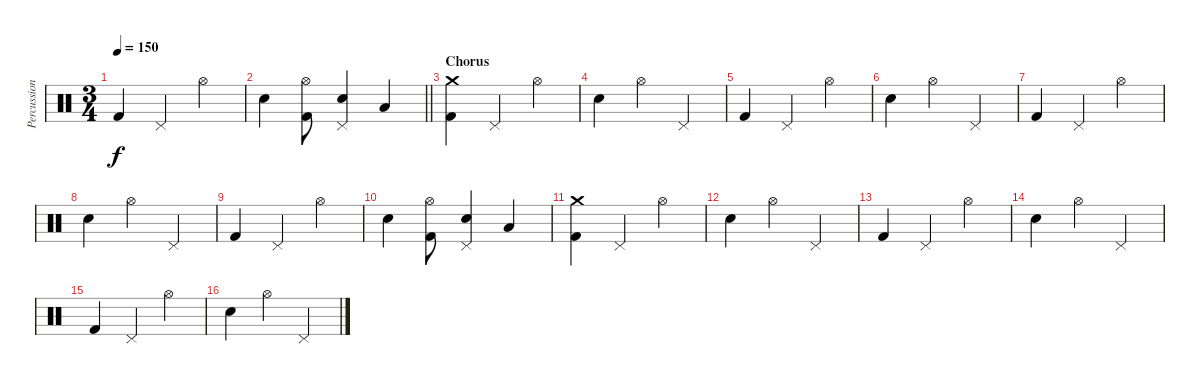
\track ("Percussion" "Percussion") {instrument percussion}
\staff {score}
\articulation defaults
\ts (3 4)
\tempo 150
\clef neutral
\ks c "Kick (hit) 2".4{dy f} "Pedal Hi-Hat (hit)".4 "Hi-Hat (open)".4
|
\barLineRight lightlight "Snare (hit) 2".4
("Kick (hit) 2" "Hi-Hat (open)").8 ("Snare (hit) 2" "Pedal Hi-Hat (hit)").4 "Low Tom (hit)".4 |
\section ("" "Chorus")
("Kick (hit) 2" "Crash medium (hit)").4 "Pedal Hi-Hat (hit)".4 "Hi-Hat (open)".4 |
"Snare (hit) 2".4 "Hi-Hat (open)".4 "Pedal Hi-Hat (hit)".4 |
"Kick (hit) 2".4 "Pedal Hi-Hat (hit)".4 "Hi-Hat (open)".4 |
"Snare (hit) 2".4 "Hi-Hat (open)".4 "Pedal Hi-Hat (hit)".4 |
"Kick (hit) 2".4 "Pedal Hi-Hat (hit)".4 "Hi-Hat (open)".4 |
"Snare (hit) 2".4 "Hi-Hat (open)".4 "Pedal Hi-Hat (hit)".4 |
"Kick (hit) 2".4 "Pedal Hi-Hat (hit)".4 "Hi-Hat (open)".4 |
"Snare (hit) 2".4 ("Kick (hit) 2" "Hi-Hat (open)").8 ("Snare (hit) 2" "Pedal Hi-Hat (hit)").4 "Low Tom (hit)".4 |
("Kick (hit) 2" "Crash medium (hit)").4 "Pedal Hi-Hat (hit)".4 "Hi-Hat (open)".4 |
"Snare (hit) 2".4 "Hi-Hat (open)".4 "Pedal Hi-Hat (hit)".4 |
"Kick (hit) 2".4 "Pedal Hi-Hat (hit)".4 "Hi-Hat (open)".4 |
"Snare (hit) 2".4 "Hi-Hat (open)".4 "Pedal Hi-Hat (hit)".4 |
"Kick (hit) 2".4 "Pedal Hi-Hat (hit)".4 "Hi-Hat (open)".4 |
"Snare (hit) 2".4 "Hi-Hat (open)".4 "Pedal Hi-Hat (hit)".4
